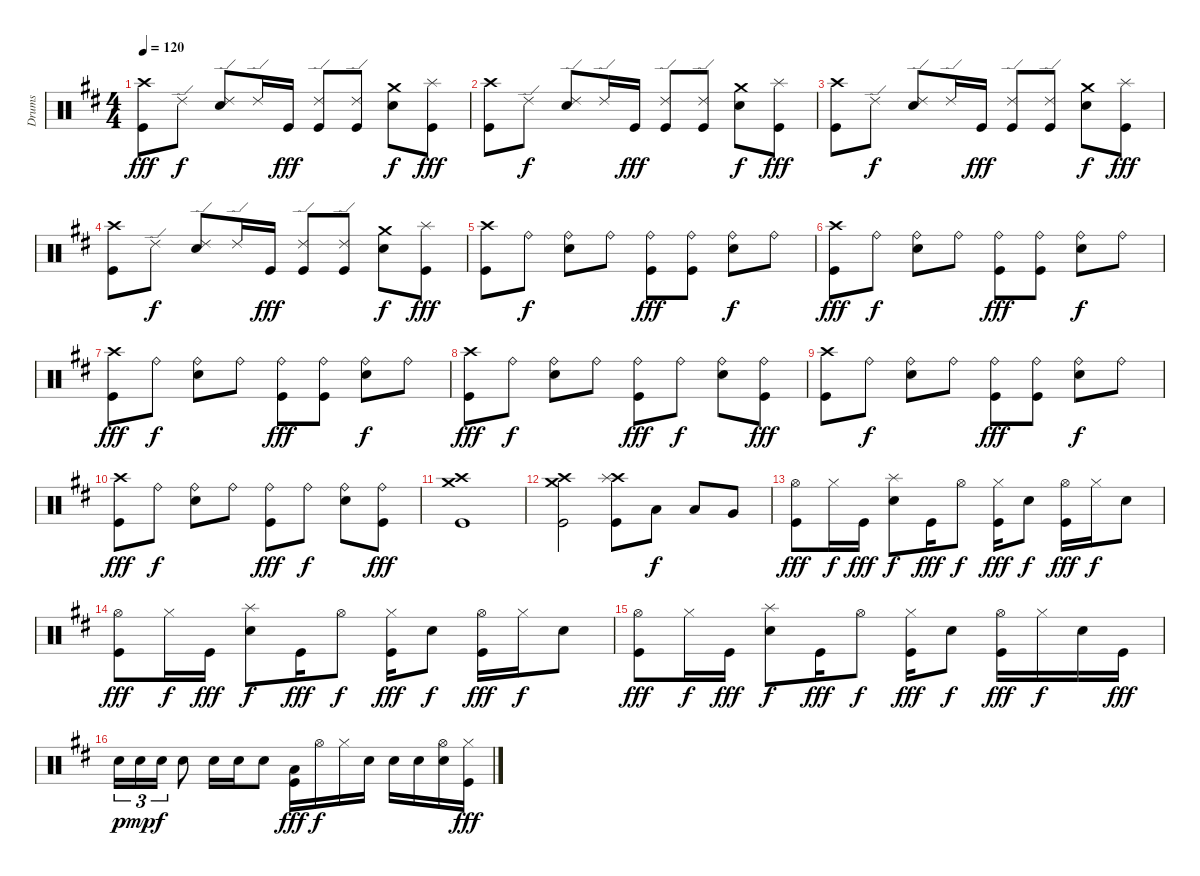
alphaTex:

\track ("Drums" "Drums") {instrument percussion}
\staff {score}
\articulation defaults
\ts (4 4)
\tempo 120
\clef neutral
\ks d
("Crash high (hit)" "Kick (hit)").8{dy fff} "Ride (edge) 2".8{dy f} ("Ride (edge) 2" "Snare (hit) 2").8 "Ride (edge) 2".16 "Kick (hit)".16{dy fff} ("Ride (edge) 2" "Kick (hit)").8 ("Ride (edge) 2" "Kick (hit)").8 ("Crash medium (hit)" "Snare (hit) 2").8{dy f} ("Splash (hit)" "Kick (hit)").8{dy fff} |
("Crash high (hit)" "Kick (hit)").8 "Ride (edge) 2".8{dy f} ("Ride (edge) 2" "Snare (hit) 2").8 "Ride (edge) 2".16 "Kick (hit)".16{dy fff} ("Ride (edge) 2" "Kick (hit)").8 ("Ride (edge) 2" "Kick (hit)").8 ("Crash medium (hit)" "Snare (hit) 2").8{dy f} ("Splash (hit)" "Kick (hit)").8{dy fff} |
("Crash high (hit)" "Kick (hit)").8 "Ride (edge) 2".8{dy f} ("Ride (edge) 2" "Snare (hit) 2").8 "Ride (edge) 2".16 "Kick (hit)".16{dy fff} ("Ride (edge) 2" "Kick (hit)").8 ("Ride (edge) 2" "Kick (hit)").8 ("Crash medium (hit)" "Snare (hit) 2").8{dy f} ("Splash (hit)" "Kick (hit)").8{dy fff} |
("Crash high (hit)" "Kick (hit)").8 "Ride (edge) 2".8{dy f} ("Ride (edge) 2" "Snare (hit) 2").8 "Ride (edge) 2".16 "Kick (hit)".16{dy fff} ("Ride (edge) 2" "Kick (hit)").8 ("Ride (edge) 2" "Kick (hit)").8 ("Crash medium (hit)" "Snare (hit) 2").8{dy f} ("Splash (hit)" "Kick (hit)").8{dy fff} |
("Crash high (hit)" "Kick (hit)").8 "Ride (bell)".8{dy f} ("Ride (bell)" "Snare (hit) 2").8 "Ride (bell)".8 ("Ride (bell)" "Kick (hit)").8{dy fff} ("Ride (bell)" "Kick (hit)").8 ("Ride (bell)" "Snare (hit) 2").8{dy f} "Ride (bell)".8 |
("Crash high (hit)" "Kick (hit)").8{dy fff} "Ride (bell)".8{dy f} ("Ride (bell)" "Snare (hit) 2").8 "Ride (bell)".8 ("Ride (bell)" "Kick (hit)").8{dy fff} ("Ride (bell)" "Kick (hit)").8 ("Ride (bell)" "Snare (hit) 2").8{dy f} "Ride (bell)".8 |
("Crash high (hit)" "Kick (hit)").8{dy fff} "Ride (bell)".8{dy f} ("Ride (bell)" "Snare (hit) 2").8 "Ride (bell)".8 ("Ride (bell)" "Kick (hit)").8{dy fff} ("Ride (bell)" "Kick (hit)").8 ("Ride (bell)" "Snare (hit) 2").8{dy f} "Ride (bell)".8 |
("Crash high (hit)" "Kick (hit)").8{dy fff} "Ride (bell)".8{dy f} ("Ride (bell)" "Snare (hit) 2").8 "Ride (bell)".8 ("Ride (bell)" "Kick (hit)").8{dy fff} "Ride (bell)".8{dy f} ("Ride (bell)" "Snare (hit) 2").8 ("Ride (bell)" "Kick (hit)").8{dy fff} |
("Crash high (hit)" "Kick (hit)").8 "Ride (bell)".8{dy f} ("Ride (bell)" "Snare (hit) 2").8 "Ride (bell)".8 ("Ride (bell)" "Kick (hit)").8{dy fff} ("Ride (bell)" "Kick (hit)").8 ("Ride (bell)" "Snare (hit) 2").8{dy f} "Ride (bell)".8 |
("Crash high (hit)" "Kick (hit)").8{dy fff} "Ride (bell)".8{dy f} ("Ride (bell)" "Snare (hit) 2").8 "Ride (bell)".8 ("Ride (bell)" "Kick (hit)").8{dy fff} "Ride (bell)".8{dy f} ("Ride (bell)" "Snare (hit) 2").8 ("Ride (bell)" "Kick (hit)").8{dy fff} |
("Crash high (hit)" "Crash medium (hit)" "Kick (hit)").1 |
("Crash high (hit)" "Crash medium (hit)" "Kick (hit)").2 ("Crash high (hit)" "Splash (hit)" "Kick (hit)").8 "Low Tom (hit)".8{dy f} "Low Tom (hit)".8 "Very Low Tom (hit)".8 |
("Hi-Hat (open)" "Kick (hit)").8{dy fff} "Hi-Hat (closed)".16{dy f} "Kick (hit)".16{dy fff} ("Splash (hit)" "Snare (hit) 2").8{dy f} "Kick (hit)".16{dy fff} "Hi-Hat (open)".8{dy f} ("Hi-Hat (closed)" "Kick (hit)").16{dy fff} "Snare (hit) 2".8{dy f} ("Hi-Hat (open)" "Kick (hit)").16{dy fff} "Hi-Hat (closed)".16{dy f} "Snare (hit) 2".8 |
("Hi-Hat (open)" "Kick (hit)").8{dy fff} "Hi-Hat (closed)".16{dy f} "Kick (hit)".16{dy fff} ("Splash (hit)" "Snare (hit) 2").8{dy f} "Kick (hit)".16{dy fff} "Hi-Hat (open)".8{dy f} ("Hi-Hat (closed)" "Kick (hit)").16{dy fff} "Snare (hit) 2".8{dy f} ("Hi-Hat (open)" "Kick (hit)").16{dy fff} "Hi-Hat (closed)".16{dy f} "Snare (hit) 2".8 |
("Hi-Hat (open)" "Kick (hit)").8{dy fff} "Hi-Hat (closed)".16{dy f} "Kick (hit)".16{dy fff} ("Splash (hit)" "Snare (hit) 2").8{dy f} "Kick (hit)".16{dy fff} "Hi-Hat (open)".8{dy f} ("Hi-Hat (closed)" "Kick (hit)").16{dy fff} "Snare (hit) 2".8{dy f} ("Hi-Hat (open)" "Kick (hit)").16{dy fff} "Hi-Hat (closed)".16{dy f} "Snare (hit) 2".16 "Kick (hit)".16{dy fff} |
"Snare (hit) 2".16{tu (3 2) dy p} "Snare (hit) 2".16{tu (3 2) dy mp} "Snare (hit) 2".16{tu (3 2) dy f} "Snare (hit) 2".8 "Snare (hit) 2".16 "Snare (hit) 2".16 "Snare (hit) 2".8 ("Low Tom (hit)" "Kick (hit)").16{dy fff} "Hi-Hat (open)".16{dy f} "Hi-Hat (closed)".16 "Snare (hit) 2".16 "Snare (hit) 2".16 "Snare (hit) 2".16 ("Hi-Hat (open)" "Snare (hit) 2").16 ("Hi-Hat (closed)" "Kick (hit)").16{dy fff}
